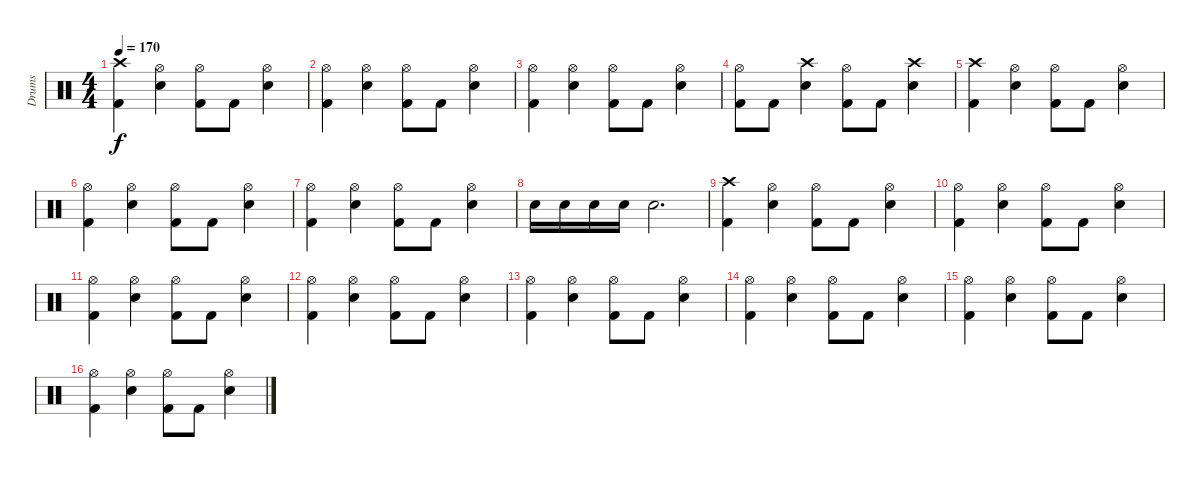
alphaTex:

\track ("Drums" "Drums") {instrument percussion}
\staff {score}
\articulation defaults
\ts (4 4)
\tempo 170
\clef neutral
\ks c
("Crash high (hit)" "Kick (hit) 2").4{dy f} ("Hi-Hat (open)" "Snare (hit) 2").4 ("Hi-Hat (open)" "Kick (hit) 2").8 "Kick (hit) 2".8 ("Hi-Hat (open)" "Snare (hit) 2").4 |
("Hi-Hat (open)" "Kick (hit) 2").4 ("Hi-Hat (open)" "Snare (hit) 2").4 ("Hi-Hat (open)" "Kick (hit) 2").8 "Kick (hit) 2".8 ("Hi-Hat (open)" "Snare (hit) 2").4 |
("Hi-Hat (open)" "Kick (hit) 2").4 ("Hi-Hat (open)" "Snare (hit) 2").4 ("Hi-Hat (open)" "Kick (hit) 2").8 "Kick (hit) 2".8 ("Hi-Hat (open)" "Snare (hit) 2").4 |
("Hi-Hat (open)" "Kick (hit) 2").8 "Kick (hit) 2".8 ("Crash high (hit)" "Snare (hit) 2").4 ("Hi-Hat (open)" "Kick (hit) 2").8 "Kick (hit) 2".8 ("Crash high (hit)" "Snare (hit) 2").4 |
("Crash high (hit)" "Kick (hit) 2").4 ("Hi-Hat (open)" "Snare (hit) 2").4 ("Hi-Hat (open)" "Kick (hit) 2").8 "Kick (hit) 2".8 ("Hi-Hat (open)" "Snare (hit) 2").4 |
("Hi-Hat (open)" "Kick (hit) 2").4 ("Hi-Hat (open)" "Snare (hit) 2").4 ("Hi-Hat (open)" "Kick (hit) 2").8 "Kick (hit) 2".8 ("Hi-Hat (open)" "Snare (hit) 2").4 |
("Hi-Hat (open)" "Kick (hit) 2").4 ("Hi-Hat (open)" "Snare (hit) 2").4 ("Hi-Hat (open)" "Kick (hit) 2").8 "Kick (hit) 2".8 ("Hi-Hat (open)" "Snare (hit) 2").4 |
"Snare (hit) 2".16 "Snare (hit) 2".16 "Snare (hit) 2".16 "Snare (hit) 2".16 "Snare (hit) 2".2{d} |
("Crash high (hit)" "Kick (hit) 2").4 ("Hi-Hat (open)" "Snare (hit) 2").4 ("Hi-Hat (open)" "Kick (hit) 2").8 "Kick (hit) 2".8 ("Hi-Hat (open)" "Snare (hit) 2").4 |
("Hi-Hat (open)" "Kick (hit) 2").4 ("Hi-Hat (open)" "Snare (hit) 2").4 ("Hi-Hat (open)" "Kick (hit) 2").8 "Kick (hit) 2".8 ("Hi-Hat (open)" "Snare (hit) 2").4 |
("Hi-Hat (open)" "Kick (hit) 2").4 ("Hi-Hat (open)" "Snare (hit) 2").4 ("Hi-Hat (open)" "Kick (hit) 2").8 "Kick (hit) 2".8 ("Hi-Hat (open)" "Snare (hit) 2").4 |
("Hi-Hat (open)" "Kick (hit) 2").4 ("Hi-Hat (open)" "Snare (hit) 2").4 ("Hi-Hat (open)" "Kick (hit) 2").8 "Kick (hit) 2".8 ("Hi-Hat (open)" "Snare (hit) 2").4 |
("Hi-Hat (open)" "Kick (hit) 2").4 ("Hi-Hat (open)" "Snare (hit) 2").4 ("Hi-Hat (open)" "Kick (hit) 2").8 "Kick (hit) 2".8 ("Hi-Hat (open)" "Snare (hit) 2").4 |
("Hi-Hat (open)" "Kick (hit) 2").4 ("Hi-Hat (open)" "Snare (hit) 2").4 ("Hi-Hat (open)" "Kick (hit) 2").8 "Kick (hit) 2".8 ("Hi-Hat (open)" "Snare (hit) 2").4 |
("Hi-Hat (open)" "Kick (hit) 2").4 ("Hi-Hat (open)" "Snare (hit) 2").4 ("Hi-Hat (open)" "Kick (hit) 2").8 "Kick (hit) 2".8 ("Hi-Hat (open)" "Snare (hit) 2").4 |
("Hi-Hat (open)" "Kick (hit) 2").4 ("Hi-Hat (open)" "Snare (hit) 2").4 ("Hi-Hat (open)" "Kick (hit) 2").8 "Kick (hit) 2".8 ("Hi-Hat (open)" "Snare (hit) 2").4
